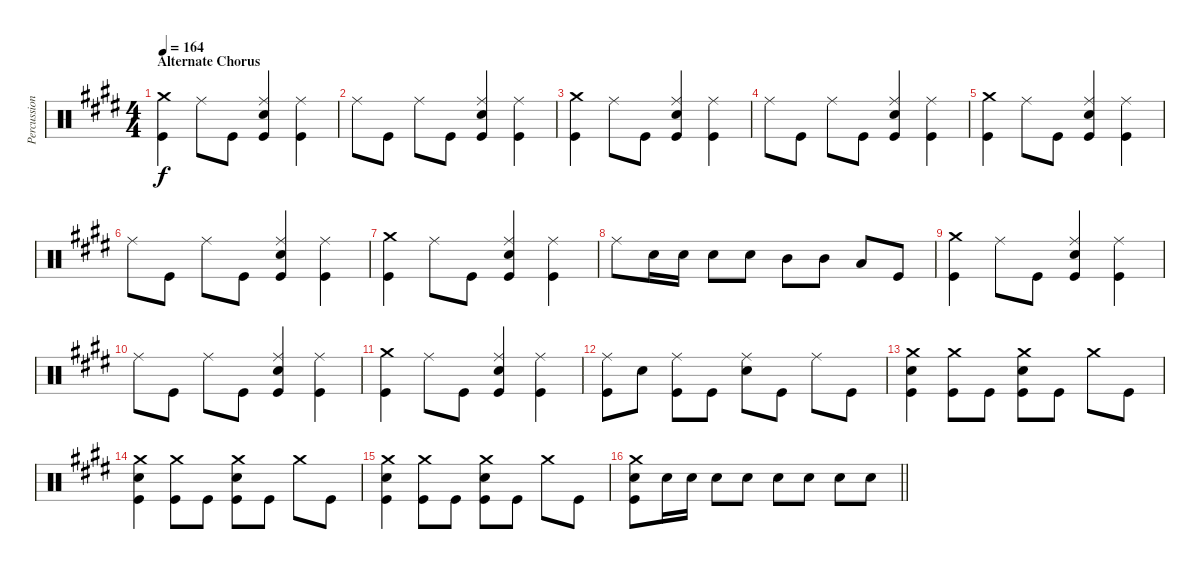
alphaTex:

\track ("Percussion" "Percussion") {instrument percussion}
\staff {score}
\articulation defaults
\ts (4 4)
\section ("" "Alternate Chorus")
\tempo 164
\clef neutral
\ks e
("Crash medium (hit)" "Kick (hit)").4{dy f} "Ride (middle)".8 "Kick (hit)".8 ("Ride (middle)" "Electric Snare (hit)" "Kick (hit)").4 ("Ride (middle)" "Kick (hit)").4 |
"Ride (middle)".8 "Kick (hit)".8 "Ride (middle)".8 "Kick (hit)".8 ("Ride (middle)" "Electric Snare (hit)" "Kick (hit)").4 ("Ride (middle)" "Kick (hit)").4 |
("Crash medium (hit)" "Kick (hit)").4 "Ride (middle)".8 "Kick (hit)".8 ("Ride (middle)" "Electric Snare (hit)" "Kick (hit)").4 ("Ride (middle)" "Kick (hit)").4 |
"Ride (middle)".8 "Kick (hit)".8 "Ride (middle)".8 "Kick (hit)".8 ("Ride (middle)" "Electric Snare (hit)" "Kick (hit)").4 ("Ride (middle)" "Kick (hit)").4 |
("Crash medium (hit)" "Kick (hit)").4 "Ride (middle)".8 "Kick (hit)".8 ("Ride (middle)" "Electric Snare (hit)" "Kick (hit)").4 ("Ride (middle)" "Kick (hit)").4 |
"Ride (middle)".8 "Kick (hit)".8 "Ride (middle)".8 "Kick (hit)".8 ("Ride (middle)" "Electric Snare (hit)" "Kick (hit)").4 ("Ride (middle)" "Kick (hit)").4 |
("Crash medium (hit)" "Kick (hit)").4 "Ride (middle)".8 "Kick (hit)".8 ("Ride (middle)" "Electric Snare (hit)" "Kick (hit)").4 ("Ride (middle)" "Kick (hit)").4 |
"Ride (middle)".8 "Electric Snare (hit)".16 "Electric Snare (hit)".16 "Electric Snare (hit)".8 "Electric Snare (hit)".8 "Mid Tom (hit)".8 "Mid Tom (hit)".8 "Low Tom (hit)".8 "Kick (hit)".8 |
("Crash medium (hit)" "Kick (hit)").4 "Ride (middle)".8 "Kick (hit)".8 ("Ride (middle)" "Electric Snare (hit)" "Kick (hit)").4 ("Ride (middle)" "Kick (hit)").4 |
"Ride (middle)".8 "Kick (hit)".8 "Ride (middle)".8 "Kick (hit)".8 ("Ride (middle)" "Electric Snare (hit)" "Kick (hit)").4 ("Ride (middle)" "Kick (hit)").4 |
("Crash medium (hit)" "Kick (hit)").4 "Ride (middle)".8 "Kick (hit)".8 ("Ride (middle)" "Electric Snare (hit)" "Kick (hit)").4 ("Ride (middle)" "Kick (hit)").4 |
("Ride (middle)" "Kick (hit)").8 "Electric Snare (hit)".8 ("Ride (middle)" "Kick (hit)").8 "Kick (hit)".8 ("Ride (middle)" "Electric Snare (hit)").8 "Kick (hit)".8 "Ride (middle)".8 "Kick (hit)".8 |
("Crash medium (hit)" "Electric Snare (hit)" "Kick (hit)").4 ("Crash medium (hit)" "Kick (hit)").8 "Kick (hit)".8 ("Crash medium (hit)" "Electric Snare (hit)" "Kick (hit)").8 "Kick (hit)".8 "Crash medium (hit)".8 "Kick (hit)".8 |
("Crash medium (hit)" "Electric Snare (hit)" "Kick (hit)").4 ("Crash medium (hit)" "Kick (hit)").8 "Kick (hit)".8 ("Crash medium (hit)" "Electric Snare (hit)" "Kick (hit)").8 "Kick (hit)".8 "Crash medium (hit)".8 "Kick (hit)".8 |
("Crash medium (hit)" "Electric Snare (hit)" "Kick (hit)").4 ("Crash medium (hit)" "Kick (hit)").8 "Kick (hit)".8 ("Crash medium (hit)" "Electric Snare (hit)" "Kick (hit)").8 "Kick (hit)".8 "Crash medium (hit)".8 "Kick (hit)".8 |
\barLineRight lightlight
("Crash medium (hit)" "Electric Snare (hit)" "Kick (hit)").8 "Electric Snare (hit)".16 "Electric Snare (hit)".16 "Electric Snare (hit)".8 "Electric Snare (hit)".8 "Electric Snare (hit)".8 "Electric Snare (hit)".8 "Electric Snare (hit)".8 "Electric Snare (hit)".8
